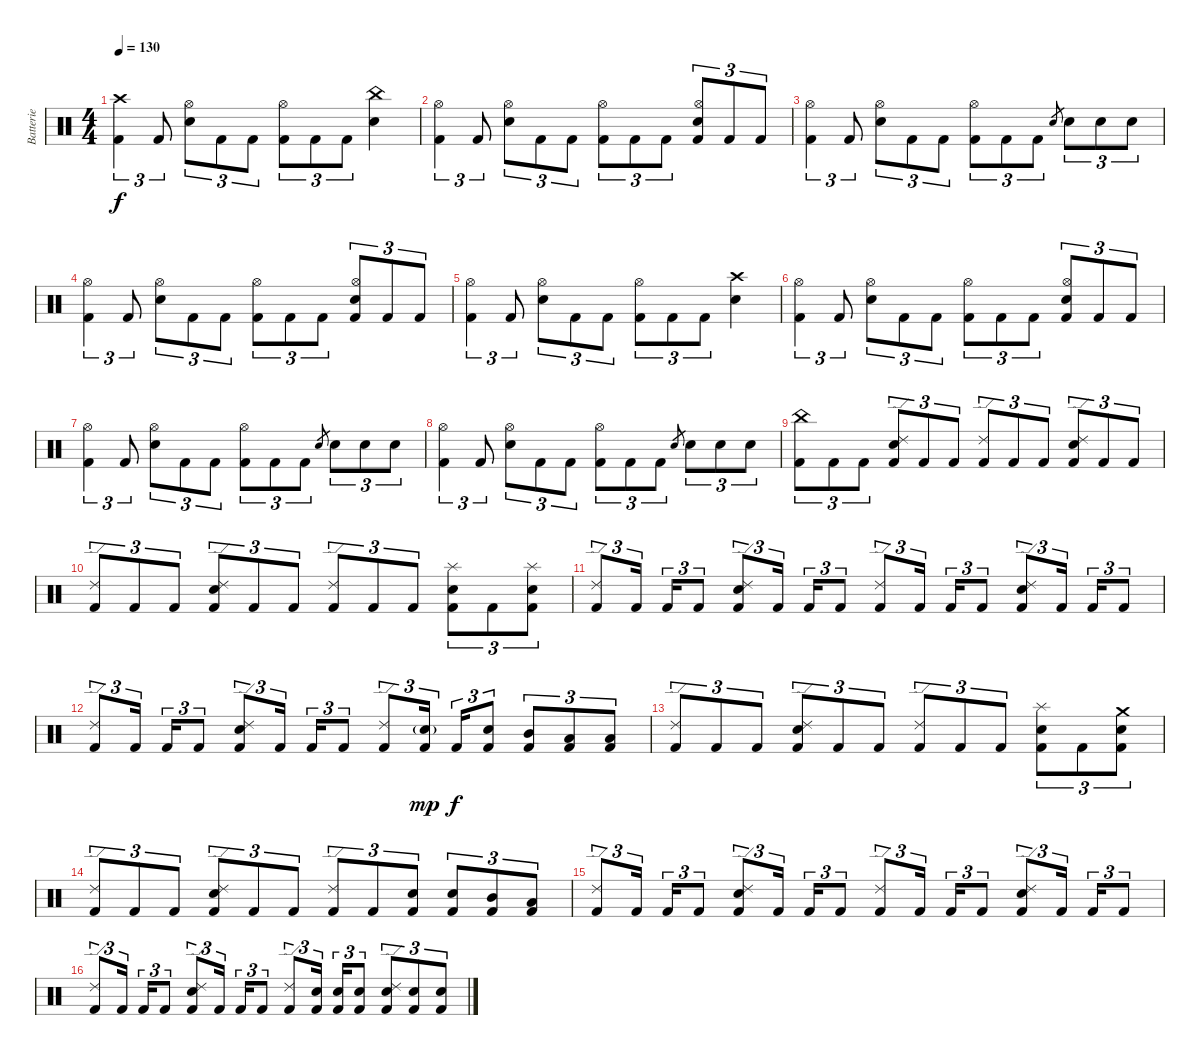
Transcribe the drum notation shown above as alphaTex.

\track ("Batterie" "Batterie") {instrument percussion}
\staff {score}
\articulation defaults
\ts (4 4)
\tempo 130
\clef neutral
\ks c
("Crash high (hit)" "Kick (hit) 2").4{tu (3 2) dy f} "Kick (hit) 2".8{tu (3 2)} ("Hi-Hat (open)" "Electric Snare (hit)").8{tu (3 2)} "Kick (hit) 2".8{tu (3 2)} "Kick (hit) 2".8{tu (3 2)} ("Hi-Hat (open)" "Kick (hit) 2").8{tu (3 2)} "Kick (hit) 2".8{tu (3 2)} "Kick (hit) 2".8{tu (3 2)} ("China (hit)" "Electric Snare (hit)").4 |
("Hi-Hat (open)" "Kick (hit) 2").4{tu (3 2)} "Kick (hit) 2".8{tu (3 2)} ("Hi-Hat (open)" "Electric Snare (hit)").8{tu (3 2)} "Kick (hit) 2".8{tu (3 2)} "Kick (hit) 2".8{tu (3 2)} ("Hi-Hat (open)" "Kick (hit) 2").8{tu (3 2)} "Kick (hit) 2".8{tu (3 2)} "Kick (hit) 2".8{tu (3 2)} ("Hi-Hat (open)" "Electric Snare (hit)" "Kick (hit) 2").8{tu (3 2)} "Kick (hit) 2".8{tu (3 2)} "Kick (hit) 2".8{tu (3 2)} |
("Hi-Hat (open)" "Kick (hit) 2").4{tu (3 2)} "Kick (hit) 2".8{tu (3 2)} ("Hi-Hat (open)" "Electric Snare (hit)").8{tu (3 2)} "Kick (hit) 2".8{tu (3 2)} "Kick (hit) 2".8{tu (3 2)} ("Hi-Hat (open)" "Kick (hit) 2").8{tu (3 2)} "Kick (hit) 2".8{tu (3 2)} "Kick (hit) 2".8{tu (3 2)} "Electric Snare (hit)".8{gr} "Electric Snare (hit)".8{tu (3 2)} "Electric Snare (hit)".8{tu (3 2)} "Electric Snare (hit)".8{tu (3 2)} |
("Hi-Hat (open)" "Kick (hit) 2").4{tu (3 2)} "Kick (hit) 2".8{tu (3 2)} ("Hi-Hat (open)" "Electric Snare (hit)").8{tu (3 2)} "Kick (hit) 2".8{tu (3 2)} "Kick (hit) 2".8{tu (3 2)} ("Hi-Hat (open)" "Kick (hit) 2").8{tu (3 2)} "Kick (hit) 2".8{tu (3 2)} "Kick (hit) 2".8{tu (3 2)} ("Hi-Hat (open)" "Electric Snare (hit)" "Kick (hit) 2").8{tu (3 2)} "Kick (hit) 2".8{tu (3 2)} "Kick (hit) 2".8{tu (3 2)} |
("Hi-Hat (open)" "Kick (hit) 2").4{tu (3 2)} "Kick (hit) 2".8{tu (3 2)} ("Hi-Hat (open)" "Electric Snare (hit)").8{tu (3 2)} "Kick (hit) 2".8{tu (3 2)} "Kick (hit) 2".8{tu (3 2)} ("Hi-Hat (open)" "Kick (hit) 2").8{tu (3 2)} "Kick (hit) 2".8{tu (3 2)} "Kick (hit) 2".8{tu (3 2)} ("Crash high (hit)" "Electric Snare (hit)").4 |
("Hi-Hat (open)" "Kick (hit) 2").4{tu (3 2)} "Kick (hit) 2".8{tu (3 2)} ("Hi-Hat (open)" "Electric Snare (hit)").8{tu (3 2)} "Kick (hit) 2".8{tu (3 2)} "Kick (hit) 2".8{tu (3 2)} ("Hi-Hat (open)" "Kick (hit) 2").8{tu (3 2)} "Kick (hit) 2".8{tu (3 2)} "Kick (hit) 2".8{tu (3 2)} ("Hi-Hat (open)" "Electric Snare (hit)" "Kick (hit) 2").8{tu (3 2)} "Kick (hit) 2".8{tu (3 2)} "Kick (hit) 2".8{tu (3 2)} |
("Hi-Hat (open)" "Kick (hit) 2").4{tu (3 2)} "Kick (hit) 2".8{tu (3 2)} ("Hi-Hat (open)" "Electric Snare (hit)").8{tu (3 2)} "Kick (hit) 2".8{tu (3 2)} "Kick (hit) 2".8{tu (3 2)} ("Hi-Hat (open)" "Kick (hit) 2").8{tu (3 2)} "Kick (hit) 2".8{tu (3 2)} "Kick (hit) 2".8{tu (3 2)} "Electric Snare (hit)".8{gr} "Electric Snare (hit)".8{tu (3 2)} "Electric Snare (hit)".8{tu (3 2)} "Electric Snare (hit)".8{tu (3 2)} |
("Hi-Hat (open)" "Kick (hit) 2").4{tu (3 2)} "Kick (hit) 2".8{tu (3 2)} ("Hi-Hat (open)" "Electric Snare (hit)").8{tu (3 2)} "Kick (hit) 2".8{tu (3 2)} "Kick (hit) 2".8{tu (3 2)} ("Hi-Hat (open)" "Kick (hit) 2").8{tu (3 2)} "Kick (hit) 2".8{tu (3 2)} "Kick (hit) 2".8{tu (3 2)} "Electric Snare (hit)".8{gr} "Electric Snare (hit)".8{tu (3 2)} "Electric Snare (hit)".8{tu (3 2)} "Electric Snare (hit)".8{tu (3 2)} |
("China (hit)" "Kick (hit) 2").8{tu (3 2)} "Kick (hit) 2".8{tu (3 2)} "Kick (hit) 2".8{tu (3 2)} ("Ride (edge) 2" "Electric Snare (hit)" "Kick (hit) 2").8{tu (3 2)} "Kick (hit) 2".8{tu (3 2)} "Kick (hit) 2".8{tu (3 2)} ("Ride (edge) 2" "Kick (hit) 2").8{tu (3 2)} "Kick (hit) 2".8{tu (3 2)} "Kick (hit) 2".8{tu (3 2)} ("Ride (edge) 2" "Electric Snare (hit)" "Kick (hit) 2").8{tu (3 2)} "Kick (hit) 2".8{tu (3 2)} "Kick (hit) 2".8{tu (3 2)} |
("Ride (edge) 2" "Kick (hit) 2").8{tu (3 2)} "Kick (hit) 2".8{tu (3 2)} "Kick (hit) 2".8{tu (3 2)} ("Ride (edge) 2" "Electric Snare (hit)" "Kick (hit) 2").8{tu (3 2)} "Kick (hit) 2".8{tu (3 2)} "Kick (hit) 2".8{tu (3 2)} ("Ride (edge) 2" "Kick (hit) 2").8{tu (3 2)} "Kick (hit) 2".8{tu (3 2)} "Kick (hit) 2".8{tu (3 2)} ("Splash (hit)" "Electric Snare (hit)" "Kick (hit) 2").8{tu (3 2)} "Kick (hit) 2".8{tu (3 2)} ("Splash (hit)" "Electric Snare (hit)" "Kick (hit) 2").8{tu (3 2)} |
("Ride (edge) 2" "Kick (hit) 2").8{tu (3 2)} "Kick (hit) 2".16{tu (3 2)} "Kick (hit) 2".16{tu (3 2)} "Kick (hit) 2".8{tu (3 2)} ("Ride (edge) 2" "Electric Snare (hit)" "Kick (hit) 2").8{tu (3 2)} "Kick (hit) 2".16{tu (3 2)} "Kick (hit) 2".16{tu (3 2)} "Kick (hit) 2".8{tu (3 2)} ("Ride (edge) 2" "Kick (hit) 2").8{tu (3 2)} "Kick (hit) 2".16{tu (3 2)} "Kick (hit) 2".16{tu (3 2)} "Kick (hit) 2".8{tu (3 2)} ("Ride (edge) 2" "Electric Snare (hit)" "Kick (hit) 2").8{tu (3 2)} "Kick (hit) 2".16{tu (3 2)} "Kick (hit) 2".16{tu (3 2)} "Kick (hit) 2".8{tu (3 2)} |
("Ride (edge) 2" "Kick (hit) 2").8{tu (3 2)} "Kick (hit) 2".16{tu (3 2)} "Kick (hit) 2".16{tu (3 2)} "Kick (hit) 2".8{tu (3 2)} ("Ride (edge) 2" "Electric Snare (hit)" "Kick (hit) 2").8{tu (3 2)} "Kick (hit) 2".16{tu (3 2)} "Kick (hit) 2".16{tu (3 2)} "Kick (hit) 2".8{tu (3 2)} ("Ride (edge) 2" "Kick (hit) 2").8{tu (3 2)} ("Electric Snare (hit)"{g} "Kick (hit) 2").16{tu (3 2) dy mp} "Kick (hit) 2".16{tu (3 2) dy f} ("Electric Snare (hit)" "Kick (hit) 2").8{tu (3 2)} ("Mid Tom (hit)" "Kick (hit) 2").8{tu (3 2)} ("Low Tom (hit)" "Kick (hit) 2").8{tu (3 2)} ("Low Floor Tom (hit)" "Kick (hit) 2").8{tu (3 2)} |
("Ride (edge) 2" "Kick (hit) 2").8{tu (3 2)} "Kick (hit) 2".8{tu (3 2)} "Kick (hit) 2".8{tu (3 2)} ("Ride (edge) 2" "Electric Snare (hit)" "Kick (hit) 2").8{tu (3 2)} "Kick (hit) 2".8{tu (3 2)} "Kick (hit) 2".8{tu (3 2)} ("Ride (edge) 2" "Kick (hit) 2").8{tu (3 2)} "Kick (hit) 2".8{tu (3 2)} "Kick (hit) 2".8{tu (3 2)} ("Splash (hit)" "Electric Snare (hit)" "Kick (hit) 2").8{tu (3 2)} "Kick (hit) 2".8{tu (3 2)} ("Crash medium (hit)" "Electric Snare (hit)" "Kick (hit) 2").8{tu (3 2)} |
("Ride (edge) 2" "Kick (hit) 2").8{tu (3 2)} "Kick (hit) 2".8{tu (3 2)} "Kick (hit) 2".8{tu (3 2)} ("Ride (edge) 2" "Electric Snare (hit)" "Kick (hit) 2").8{tu (3 2)} "Kick (hit) 2".8{tu (3 2)} "Kick (hit) 2".8{tu (3 2)} ("Ride (edge) 2" "Kick (hit) 2").8{tu (3 2)} "Kick (hit) 2".8{tu (3 2)} ("Electric Snare (hit)" "Kick (hit) 2").8{tu (3 2)} ("Electric Snare (hit)" "Kick (hit) 2").8{tu (3 2)} ("Mid Tom (hit)" "Kick (hit) 2").8{tu (3 2)} ("Low Tom (hit)" "Kick (hit) 2").8{tu (3 2)} |
("Ride (edge) 2" "Kick (hit) 2").8{tu (3 2)} "Kick (hit) 2".16{tu (3 2)} "Kick (hit) 2".16{tu (3 2)} "Kick (hit) 2".8{tu (3 2)} ("Ride (edge) 2" "Electric Snare (hit)" "Kick (hit) 2").8{tu (3 2)} "Kick (hit) 2".16{tu (3 2)} "Kick (hit) 2".16{tu (3 2)} "Kick (hit) 2".8{tu (3 2)} ("Ride (edge) 2" "Kick (hit) 2").8{tu (3 2)} "Kick (hit) 2".16{tu (3 2)} "Kick (hit) 2".16{tu (3 2)} "Kick (hit) 2".8{tu (3 2)} ("Ride (edge) 2" "Electric Snare (hit)" "Kick (hit) 2").8{tu (3 2)} "Kick (hit) 2".16{tu (3 2)} "Kick (hit) 2".16{tu (3 2)} "Kick (hit) 2".8{tu (3 2)} |
("Ride (edge) 2" "Kick (hit) 2").8{tu (3 2)} "Kick (hit) 2".16{tu (3 2)} "Kick (hit) 2".16{tu (3 2)} "Kick (hit) 2".8{tu (3 2)} ("Ride (edge) 2" "Electric Snare (hit)" "Kick (hit) 2").8{tu (3 2)} "Kick (hit) 2".16{tu (3 2)} "Kick (hit) 2".16{tu (3 2)} "Kick (hit) 2".8{tu (3 2)} ("Ride (edge) 2" "Kick (hit) 2").8{tu (3 2)} ("Electric Snare (hit)" "Kick (hit) 2").16{tu (3 2)} ("Electric Snare (hit)" "Kick (hit) 2").16{tu (3 2)} ("Electric Snare (hit)" "Kick (hit) 2").8{tu (3 2)} ("Ride (edge) 2" "Electric Snare (hit)" "Kick (hit) 2").8{tu (3 2)} ("Electric Snare (hit)" "Kick (hit) 2").8{tu (3 2)} ("Electric Snare (hit)" "Kick (hit) 2").8{tu (3 2)}
